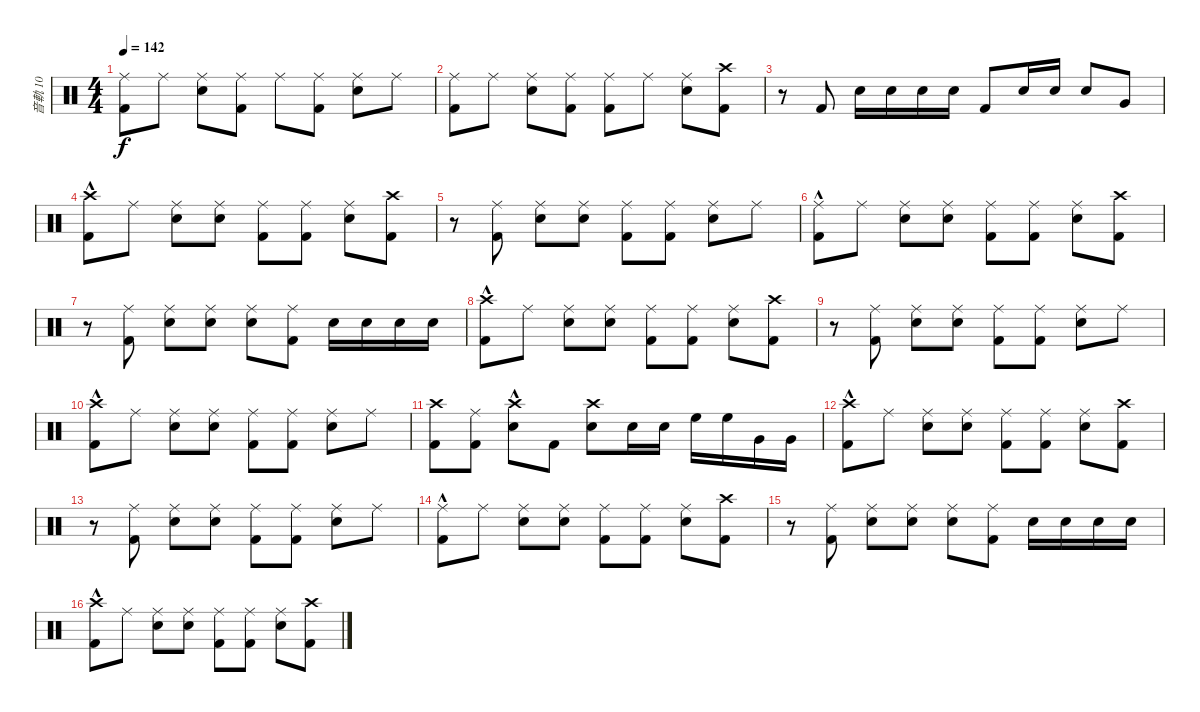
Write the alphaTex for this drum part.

\track ("音軌 10" "音軌 10") {instrument percussion}
\staff {score}
\articulation defaults
\ts (4 4)
\tempo 142
\clef neutral
\ks c
("Kick (hit) 2" "Ride (middle)").8{dy f} "Ride (middle)".8 ("Ride (middle)" "Snare (hit) 2").8 ("Ride (middle)" "Kick (hit) 2").8 "Ride (middle)".8 ("Ride (middle)" "Kick (hit) 2").8 ("Ride (middle)" "Snare (hit) 2").8 "Ride (middle)".8 |
("Ride (middle)" "Kick (hit) 2").8 "Ride (middle)".8 ("Ride (middle)" "Snare (hit) 2").8 ("Ride (middle)" "Kick (hit) 2").8 ("Ride (middle)" "Kick (hit) 2").8 "Ride (middle)".8 ("Ride (middle)" "Snare (hit) 2").8 ("Crash high (hit)" "Kick (hit) 2").8 |
r.8 "Kick (hit) 2".8 "Snare (hit) 2".16 "Snare (hit) 2".16 "Snare (hit) 2".16 "Snare (hit) 2".16 "Kick (hit) 2".8 "Snare (hit) 2".16 "Snare (hit) 2".16 "Snare (hit) 2".8 "Very Low Tom (hit)".8 |
("Crash high (hit)" "Kick (hit) 2"{hac}).8 "Ride (middle)".8 ("Ride (middle)" "Snare (hit) 2").8 ("Ride (middle)" "Snare (hit) 2").8 ("Ride (middle)" "Kick (hit) 2").8 ("Ride (middle)" "Kick (hit) 2").8 ("Ride (middle)" "Snare (hit) 2").8 ("Crash high (hit)" "Kick (hit) 2").8 |
r.8 ("Ride (middle)" "Kick (hit) 2").8 ("Ride (middle)" "Snare (hit) 2").8 ("Ride (middle)" "Snare (hit) 2").8 ("Ride (middle)" "Kick (hit) 2").8 ("Ride (middle)" "Kick (hit) 2").8 ("Ride (middle)" "Snare (hit) 2").8 "Ride (middle)".8 |
("Ride (middle)" "Kick (hit) 2"{hac}).8 "Ride (middle)".8 ("Ride (middle)" "Snare (hit) 2").8 ("Ride (middle)" "Snare (hit) 2").8 ("Ride (middle)" "Kick (hit) 2").8 ("Ride (middle)" "Kick (hit) 2").8 ("Ride (middle)" "Snare (hit) 2").8 ("Crash high (hit)" "Kick (hit) 2").8 |
r.8 ("Ride (middle)" "Kick (hit) 2").8 ("Ride (middle)" "Snare (hit) 2").8 ("Ride (middle)" "Snare (hit) 2").8 ("Ride (middle)" "Snare (hit) 2").8 ("Ride (middle)" "Kick (hit) 2").8 "Snare (hit) 2".16 "Snare (hit) 2".16 "Snare (hit) 2".16 "Snare (hit) 2".16 |
("Crash high (hit)" "Kick (hit) 2"{hac}).8 "Ride (middle)".8 ("Ride (middle)" "Snare (hit) 2").8 ("Ride (middle)" "Snare (hit) 2").8 ("Ride (middle)" "Kick (hit) 2").8 ("Ride (middle)" "Kick (hit) 2").8 ("Ride (middle)" "Snare (hit) 2").8 ("Crash high (hit)" "Kick (hit) 2").8 |
r.8 ("Ride (middle)" "Kick (hit) 2").8 ("Ride (middle)" "Snare (hit) 2").8 ("Ride (middle)" "Snare (hit) 2").8 ("Ride (middle)" "Kick (hit) 2").8 ("Ride (middle)" "Kick (hit) 2").8 ("Ride (middle)" "Snare (hit) 2").8 "Ride (middle)".8 |
("Crash high (hit)" "Kick (hit) 2"{hac}).8 "Ride (middle)".8 ("Ride (middle)" "Snare (hit) 2").8 ("Ride (middle)" "Snare (hit) 2").8 ("Ride (middle)" "Kick (hit) 2").8 ("Ride (middle)" "Kick (hit) 2").8 ("Ride (middle)" "Snare (hit) 2").8 "Ride (middle)".8 |
("Crash high (hit)" "Kick (hit) 2").8 ("Ride (middle)" "Kick (hit) 2").8 ("Crash high (hit)"{hac} "Snare (hit) 2"{hac}).8 "Kick (hit) 2".8 ("Crash high (hit)" "Snare (hit) 2").8 "Snare (hit)".16 "Snare (hit)".16 "High Floor Tom (hit)".16 "High Floor Tom (hit)".16 "Very Low Tom (hit)".16 "Very Low Tom (hit)".16 |
("Crash high (hit)" "Kick (hit) 2"{hac}).8 "Ride (middle)".8 ("Ride (middle)" "Snare (hit) 2").8 ("Ride (middle)" "Snare (hit) 2").8 ("Ride (middle)" "Kick (hit) 2").8 ("Ride (middle)" "Kick (hit) 2").8 ("Ride (middle)" "Snare (hit) 2").8 ("Crash high (hit)" "Kick (hit) 2").8 |
r.8 ("Ride (middle)" "Kick (hit) 2").8 ("Ride (middle)" "Snare (hit) 2").8 ("Ride (middle)" "Snare (hit) 2").8 ("Ride (middle)" "Kick (hit) 2").8 ("Ride (middle)" "Kick (hit) 2").8 ("Ride (middle)" "Snare (hit) 2").8 "Ride (middle)".8 |
("Ride (middle)" "Kick (hit) 2"{hac}).8 "Ride (middle)".8 ("Ride (middle)" "Snare (hit) 2").8 ("Ride (middle)" "Snare (hit) 2").8 ("Ride (middle)" "Kick (hit) 2").8 ("Ride (middle)" "Kick (hit) 2").8 ("Ride (middle)" "Snare (hit) 2").8 ("Crash high (hit)" "Kick (hit) 2").8 |
r.8 ("Ride (middle)" "Kick (hit) 2").8 ("Ride (middle)" "Snare (hit) 2").8 ("Ride (middle)" "Snare (hit) 2").8 ("Ride (middle)" "Snare (hit) 2").8 ("Ride (middle)" "Kick (hit) 2").8 "Snare (hit) 2".16 "Snare (hit) 2".16 "Snare (hit) 2".16 "Snare (hit) 2".16 |
("Crash high (hit)" "Kick (hit) 2"{hac}).8 "Ride (middle)".8 ("Ride (middle)" "Snare (hit) 2").8 ("Ride (middle)" "Snare (hit) 2").8 ("Ride (middle)" "Kick (hit) 2").8 ("Ride (middle)" "Kick (hit) 2").8 ("Ride (middle)" "Snare (hit) 2").8 ("Crash high (hit)" "Kick (hit) 2").8
